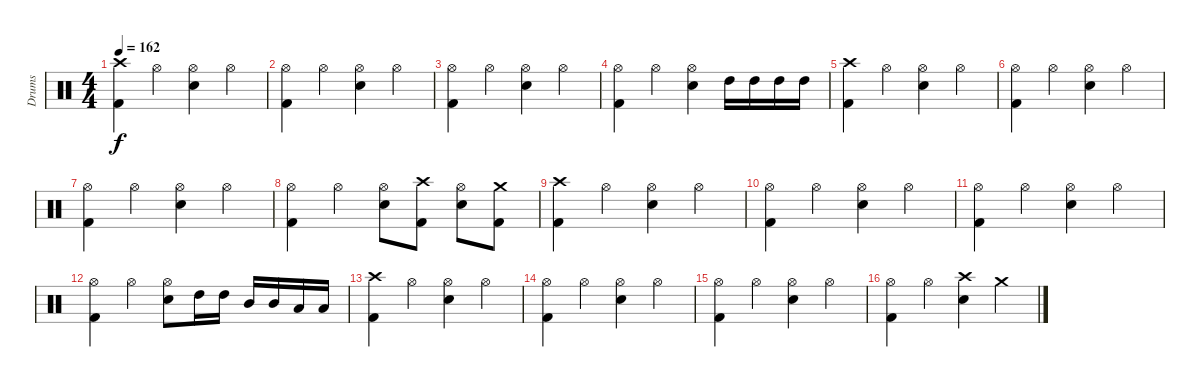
\track ("Drums" "Drums") {instrument percussion}
\staff {score}
\articulation defaults
\ts (4 4)
\tempo 162
\clef neutral
\ks c
("Crash high (hit)" "Kick (hit) 2").4{dy f} "Hi-Hat (open)".4 ("Hi-Hat (open)" "Snare (hit) 2").4 "Hi-Hat (open)".4 |
("Hi-Hat (open)" "Kick (hit) 2").4 "Hi-Hat (open)".4 ("Hi-Hat (open)" "Snare (hit) 2").4 "Hi-Hat (open)".4 |
("Hi-Hat (open)" "Kick (hit) 2").4 "Hi-Hat (open)".4 ("Hi-Hat (open)" "Snare (hit) 2").4 "Hi-Hat (open)".4 |
("Hi-Hat (open)" "Kick (hit) 2").4 "Hi-Hat (open)".4 ("Hi-Hat (open)" "Snare (hit) 2").4 "High Tom (hit)".16 "High Tom (hit)".16 "High Tom (hit)".16 "High Tom (hit)".16 |
("Crash high (hit)" "Kick (hit) 2").4 "Hi-Hat (open)".4 ("Hi-Hat (open)" "Snare (hit) 2").4 "Hi-Hat (open)".4 |
("Hi-Hat (open)" "Kick (hit) 2").4 "Hi-Hat (open)".4 ("Hi-Hat (open)" "Snare (hit) 2").4 "Hi-Hat (open)".4 |
("Hi-Hat (open)" "Kick (hit) 2").4 "Hi-Hat (open)".4 ("Hi-Hat (open)" "Snare (hit) 2").4 "Hi-Hat (open)".4 |
("Hi-Hat (open)" "Kick (hit) 2").4 "Hi-Hat (open)".4 ("Hi-Hat (open)" "Snare (hit) 2").8 ("Crash high (hit)" "Kick (hit) 2").8 ("Hi-Hat (open)" "Snare (hit) 2").8 ("Crash medium (hit)" "Kick (hit) 2").8 |
("Crash high (hit)" "Kick (hit) 2").4 "Hi-Hat (open)".4 ("Hi-Hat (open)" "Snare (hit) 2").4 "Hi-Hat (open)".4 |
("Hi-Hat (open)" "Kick (hit) 2").4 "Hi-Hat (open)".4 ("Hi-Hat (open)" "Snare (hit) 2").4 "Hi-Hat (open)".4 |
("Hi-Hat (open)" "Kick (hit) 2").4 "Hi-Hat (open)".4 ("Hi-Hat (open)" "Snare (hit) 2").4 "Hi-Hat (open)".4 |
("Hi-Hat (open)" "Kick (hit) 2").4 "Hi-Hat (open)".4 ("Hi-Hat (open)" "Snare (hit) 2").8 "High Tom (hit)".16 "High Tom (hit)".16 "Mid Tom (hit)".16 "Mid Tom (hit)".16 "Low Tom (hit)".16 "Low Tom (hit)".16 |
("Crash high (hit)" "Kick (hit) 2").4 "Hi-Hat (open)".4 ("Hi-Hat (open)" "Snare (hit) 2").4 "Hi-Hat (open)".4 |
("Hi-Hat (open)" "Kick (hit) 2").4 "Hi-Hat (open)".4 ("Hi-Hat (open)" "Snare (hit) 2").4 "Hi-Hat (open)".4 |
("Hi-Hat (open)" "Kick (hit) 2").4 "Hi-Hat (open)".4 ("Hi-Hat (open)" "Snare (hit) 2").4 "Hi-Hat (open)".4 |
("Hi-Hat (open)" "Kick (hit) 2").4 "Hi-Hat (open)".4 ("Crash high (hit)" "Snare (hit) 2").4 "Crash medium (hit)".4
